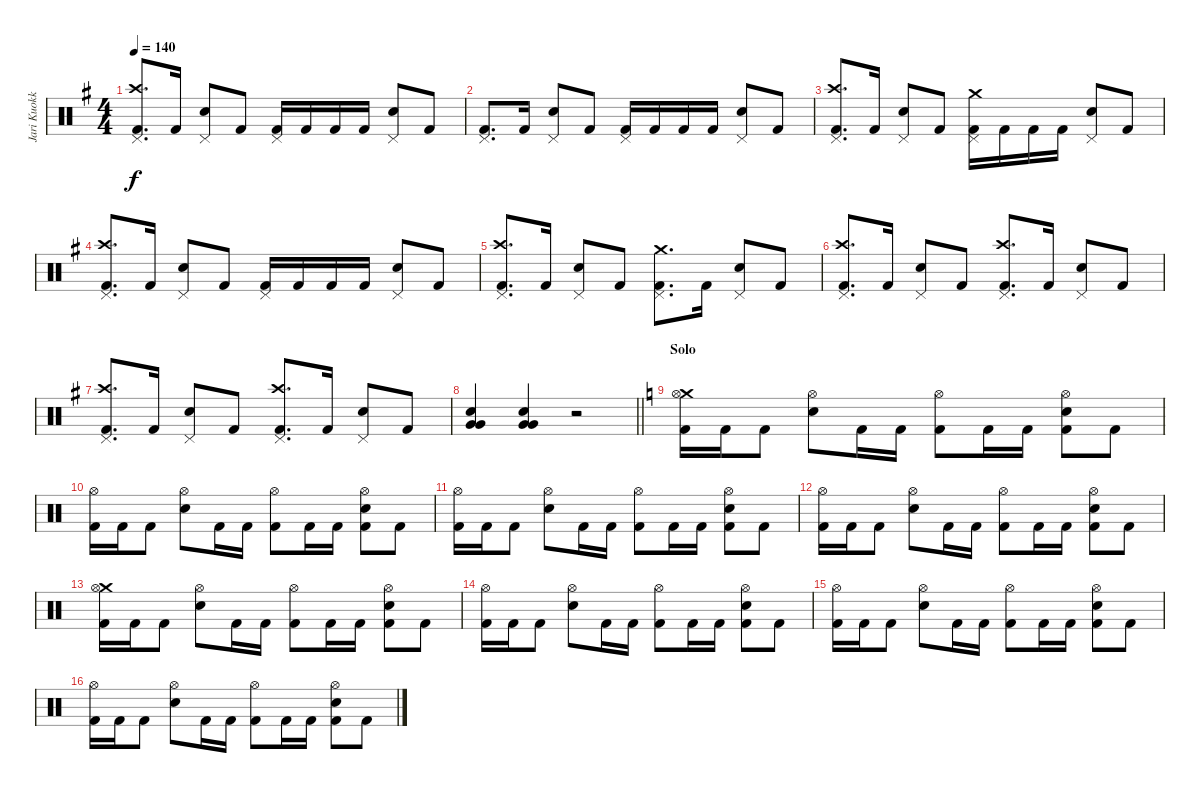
\track ("Jari Kuokkanen" "Jari Kuokk") {instrument percussion}
\staff {score}
\articulation defaults
\ts (4 4)
\tempo 140
\clef neutral
\ks eminor
("Pedal Hi-Hat (hit)" "Crash high (hit)" "Kick (hit) 2").8{d dy f} "Kick (hit) 2".16 ("Pedal Hi-Hat (hit)" "Snare (hit) 2").8 "Kick (hit) 2".8 ("Pedal Hi-Hat (hit)" "Kick (hit) 2").16 "Kick (hit) 2".16 "Kick (hit) 2".16 "Kick (hit) 2".16 ("Pedal Hi-Hat (hit)" "Snare (hit) 2").8 "Kick (hit) 2".8 |
("Pedal Hi-Hat (hit)" "Kick (hit) 2").8{d} "Kick (hit) 2".16 ("Pedal Hi-Hat (hit)" "Snare (hit) 2").8 "Kick (hit) 2".8 ("Pedal Hi-Hat (hit)" "Kick (hit) 2").16 "Kick (hit) 2".16 "Kick (hit) 2".16 "Kick (hit) 2".16 ("Pedal Hi-Hat (hit)" "Snare (hit) 2").8 "Kick (hit) 2".8 |
("Crash high (hit)" "Pedal Hi-Hat (hit)" "Kick (hit) 2").8{d} "Kick (hit) 2".16 ("Pedal Hi-Hat (hit)" "Snare (hit) 2").8 "Kick (hit) 2".8 ("Crash medium (hit)" "Pedal Hi-Hat (hit)" "Kick (hit) 2").16 "Kick (hit) 2".16 "Kick (hit) 2".16 "Kick (hit) 2".16 ("Pedal Hi-Hat (hit)" "Snare (hit) 2").8 "Kick (hit) 2".8 |
("Crash high (hit)" "Pedal Hi-Hat (hit)" "Kick (hit) 2").8{d} "Kick (hit) 2".16 ("Pedal Hi-Hat (hit)" "Snare (hit) 2").8 "Kick (hit) 2".8 ("Pedal Hi-Hat (hit)" "Kick (hit) 2").16 "Kick (hit) 2".16 "Kick (hit) 2".16 "Kick (hit) 2".16 ("Pedal Hi-Hat (hit)" "Snare (hit) 2").8 "Kick (hit) 2".8 |
("Crash high (hit)" "Pedal Hi-Hat (hit)" "Kick (hit) 2").8{d} "Kick (hit) 2".16 ("Pedal Hi-Hat (hit)" "Snare (hit) 2").8 "Kick (hit) 2".8 ("Crash medium (hit)" "Pedal Hi-Hat (hit)" "Kick (hit) 2").8{d} "Kick (hit) 2".16 ("Pedal Hi-Hat (hit)" "Snare (hit) 2").8 "Kick (hit) 2".8 |
("Crash high (hit)" "Pedal Hi-Hat (hit)" "Kick (hit) 2").8{d} "Kick (hit) 2".16 ("Pedal Hi-Hat (hit)" "Snare (hit) 2").8 "Kick (hit) 2".8 ("Crash high (hit)" "Pedal Hi-Hat (hit)" "Kick (hit) 2").8{d} "Kick (hit) 2".16 ("Pedal Hi-Hat (hit)" "Snare (hit) 2").8 "Kick (hit) 2".8 |
("Crash high (hit)" "Pedal Hi-Hat (hit)" "Kick (hit) 2").8{d} "Kick (hit) 2".16 ("Pedal Hi-Hat (hit)" "Snare (hit) 2").8 "Kick (hit) 2".8 ("Crash high (hit)" "Pedal Hi-Hat (hit)" "Kick (hit) 2").8{d} "Kick (hit) 2".16 ("Pedal Hi-Hat (hit)" "Snare (hit) 2").8 "Kick (hit) 2".8 |
\barLineRight lightlight
("Snare (hit) 2" "Very Low Tom (hit)" "Very Low Tom (hit)").4 ("Snare (hit) 2" "Very Low Tom (hit)" "Very Low Tom (hit)").4 r.2 |
\section ("" "Solo")
\ks aminor
("Crash medium (hit)" "Hi-Hat (open)" "Kick (hit) 2").16 "Kick (hit) 2".16 "Kick (hit) 2".8 ("Hi-Hat (open)" "Snare (hit) 2").8 "Kick (hit) 2".16 "Kick (hit) 2".16 ("Hi-Hat (open)" "Kick (hit) 2").8 "Kick (hit) 2".16 "Kick (hit) 2".16 ("Hi-Hat (open)" "Snare (hit) 2" "Kick (hit) 2").8 "Kick (hit) 2".8 |
("Hi-Hat (open)" "Kick (hit) 2").16 "Kick (hit) 2".16 "Kick (hit) 2".8 ("Hi-Hat (open)" "Snare (hit) 2").8 "Kick (hit) 2".16 "Kick (hit) 2".16 ("Hi-Hat (open)" "Kick (hit) 2").8 "Kick (hit) 2".16 "Kick (hit) 2".16 ("Hi-Hat (open)" "Snare (hit) 2" "Kick (hit) 2").8 "Kick (hit) 2".8 |
("Hi-Hat (open)" "Kick (hit) 2").16 "Kick (hit) 2".16 "Kick (hit) 2".8 ("Hi-Hat (open)" "Snare (hit) 2").8 "Kick (hit) 2".16 "Kick (hit) 2".16 ("Hi-Hat (open)" "Kick (hit) 2").8 "Kick (hit) 2".16 "Kick (hit) 2".16 ("Hi-Hat (open)" "Snare (hit) 2" "Kick (hit) 2").8 "Kick (hit) 2".8 |
("Hi-Hat (open)" "Kick (hit) 2").16 "Kick (hit) 2".16 "Kick (hit) 2".8 ("Hi-Hat (open)" "Snare (hit) 2").8 "Kick (hit) 2".16 "Kick (hit) 2".16 ("Hi-Hat (open)" "Kick (hit) 2").8 "Kick (hit) 2".16 "Kick (hit) 2".16 ("Hi-Hat (open)" "Snare (hit) 2" "Kick (hit) 2").8 "Kick (hit) 2".8 |
("Crash medium (hit)" "Hi-Hat (open)" "Kick (hit) 2").16 "Kick (hit) 2".16 "Kick (hit) 2".8 ("Hi-Hat (open)" "Snare (hit) 2").8 "Kick (hit) 2".16 "Kick (hit) 2".16 ("Hi-Hat (open)" "Kick (hit) 2").8 "Kick (hit) 2".16 "Kick (hit) 2".16 ("Hi-Hat (open)" "Snare (hit) 2" "Kick (hit) 2").8 "Kick (hit) 2".8 |
("Hi-Hat (open)" "Kick (hit) 2").16 "Kick (hit) 2".16 "Kick (hit) 2".8 ("Hi-Hat (open)" "Snare (hit) 2").8 "Kick (hit) 2".16 "Kick (hit) 2".16 ("Hi-Hat (open)" "Kick (hit) 2").8 "Kick (hit) 2".16 "Kick (hit) 2".16 ("Hi-Hat (open)" "Snare (hit) 2" "Kick (hit) 2").8 "Kick (hit) 2".8 |
("Hi-Hat (open)" "Kick (hit) 2").16 "Kick (hit) 2".16 "Kick (hit) 2".8 ("Hi-Hat (open)" "Snare (hit) 2").8 "Kick (hit) 2".16 "Kick (hit) 2".16 ("Hi-Hat (open)" "Kick (hit) 2").8 "Kick (hit) 2".16 "Kick (hit) 2".16 ("Hi-Hat (open)" "Snare (hit) 2" "Kick (hit) 2").8 "Kick (hit) 2".8 |
("Hi-Hat (open)" "Kick (hit) 2").16 "Kick (hit) 2".16 "Kick (hit) 2".8 ("Hi-Hat (open)" "Snare (hit) 2").8 "Kick (hit) 2".16 "Kick (hit) 2".16 ("Hi-Hat (open)" "Kick (hit) 2").8 "Kick (hit) 2".16 "Kick (hit) 2".16 ("Hi-Hat (open)" "Snare (hit) 2" "Kick (hit) 2").8 "Kick (hit) 2".8
